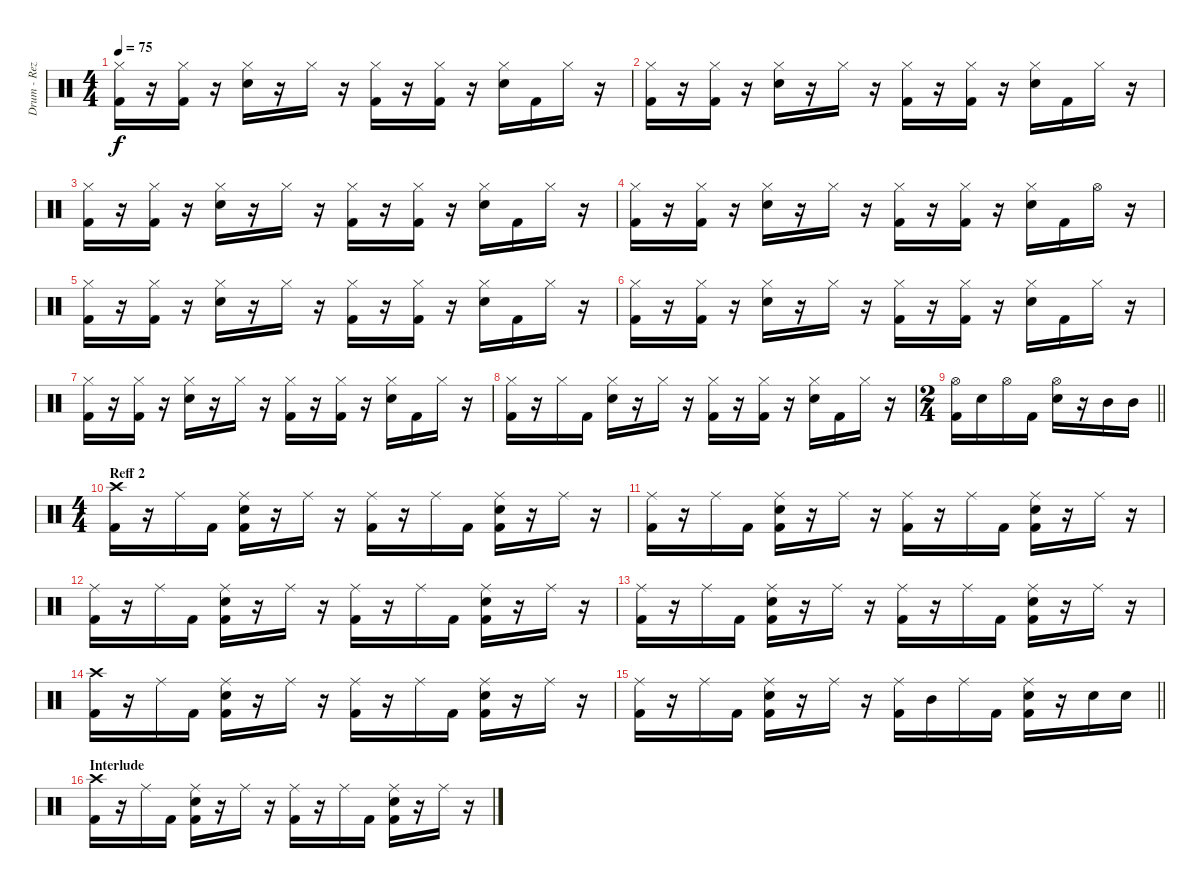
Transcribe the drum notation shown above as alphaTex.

\track ("Drum - Reza" "Drum - Rez") {instrument percussion}
\staff {score}
\articulation defaults
\ts (4 4)
\tempo 75
\clef neutral
\ks c
("Hi-Hat (closed)" "Kick (hit) 2").16{dy f} r.16 ("Hi-Hat (closed)" "Kick (hit) 2").16 r.16 ("Hi-Hat (closed)" "Electric Snare (hit)").16 r.16 "Hi-Hat (closed)".16 r.16 ("Hi-Hat (closed)" "Kick (hit) 2").16 r.16 ("Hi-Hat (closed)" "Kick (hit) 2").16 r.16 ("Hi-Hat (closed)" "Electric Snare (hit)").16 "Kick (hit) 2".16 "Hi-Hat (closed)".16 r.16 |
("Hi-Hat (closed)" "Kick (hit) 2").16 r.16 ("Hi-Hat (closed)" "Kick (hit) 2").16 r.16 ("Hi-Hat (closed)" "Electric Snare (hit)").16 r.16 "Hi-Hat (closed)".16 r.16 ("Hi-Hat (closed)" "Kick (hit) 2").16 r.16 ("Hi-Hat (closed)" "Kick (hit) 2").16 r.16 ("Hi-Hat (closed)" "Electric Snare (hit)").16 "Kick (hit) 2".16 "Hi-Hat (closed)".16 r.16 |
("Hi-Hat (closed)" "Kick (hit) 2").16 r.16 ("Hi-Hat (closed)" "Kick (hit) 2").16 r.16 ("Hi-Hat (closed)" "Electric Snare (hit)").16 r.16 "Hi-Hat (closed)".16 r.16 ("Hi-Hat (closed)" "Kick (hit) 2").16 r.16 ("Hi-Hat (closed)" "Kick (hit) 2").16 r.16 ("Hi-Hat (closed)" "Electric Snare (hit)").16 "Kick (hit) 2".16 "Hi-Hat (closed)".16 r.16 |
("Hi-Hat (closed)" "Kick (hit) 2").16 r.16 ("Hi-Hat (closed)" "Kick (hit) 2").16 r.16 ("Hi-Hat (closed)" "Electric Snare (hit)").16 r.16 "Hi-Hat (closed)".16 r.16 ("Hi-Hat (closed)" "Kick (hit) 2").16 r.16 ("Hi-Hat (closed)" "Kick (hit) 2").16 r.16 ("Hi-Hat (closed)" "Electric Snare (hit)").16 "Kick (hit) 2".16 "Hi-Hat (open)".16 r.16 |
("Hi-Hat (closed)" "Kick (hit) 2").16 r.16 ("Hi-Hat (closed)" "Kick (hit) 2").16 r.16 ("Hi-Hat (closed)" "Electric Snare (hit)").16 r.16 "Hi-Hat (closed)".16 r.16 ("Hi-Hat (closed)" "Kick (hit) 2").16 r.16 ("Hi-Hat (closed)" "Kick (hit) 2").16 r.16 ("Hi-Hat (closed)" "Electric Snare (hit)").16 "Kick (hit) 2".16 "Hi-Hat (closed)".16 r.16 |
("Hi-Hat (closed)" "Kick (hit) 2").16 r.16 ("Hi-Hat (closed)" "Kick (hit) 2").16 r.16 ("Hi-Hat (closed)" "Electric Snare (hit)").16 r.16 "Hi-Hat (closed)".16 r.16 ("Hi-Hat (closed)" "Kick (hit) 2").16 r.16 ("Hi-Hat (closed)" "Kick (hit) 2").16 r.16 ("Hi-Hat (closed)" "Electric Snare (hit)").16 "Kick (hit) 2".16 "Hi-Hat (closed)".16 r.16 |
("Hi-Hat (closed)" "Kick (hit) 2").16 r.16 ("Hi-Hat (closed)" "Kick (hit) 2").16 r.16 ("Hi-Hat (closed)" "Electric Snare (hit)").16 r.16 "Hi-Hat (closed)".16 r.16 ("Hi-Hat (closed)" "Kick (hit) 2").16 r.16 ("Hi-Hat (closed)" "Kick (hit) 2").16 r.16 ("Hi-Hat (closed)" "Electric Snare (hit)").16 "Kick (hit) 2".16 "Hi-Hat (closed)".16 r.16 |
("Hi-Hat (closed)" "Kick (hit) 2").16 r.16 "Hi-Hat (closed)".16 "Kick (hit) 2".16 ("Hi-Hat (closed)" "Electric Snare (hit)").16 r.16 "Hi-Hat (closed)".16 r.16 ("Hi-Hat (closed)" "Kick (hit) 2").16 r.16 ("Hi-Hat (closed)" "Kick (hit) 2").16 r.16 ("Hi-Hat (closed)" "Electric Snare (hit)").16 "Kick (hit) 2".16 "Hi-Hat (closed)".16 r.16 |
\ts (2 4)
\barLineRight lightlight
("Hi-Hat (open)" "Kick (hit) 2").16 "Electric Snare (hit)".16 "Hi-Hat (open)".16 "Kick (hit) 2".16 ("Hi-Hat (open)" "Electric Snare (hit)").16 r.16 "Mid Tom (hit)".16 "Mid Tom (hit)".16 |
\ts (4 4)
\section ("" "Reff 2")
("Crash high (hit)" "Kick (hit) 2").16 r.16 "Ride (middle)".16 "Kick (hit) 2".16 ("Ride (middle)" "Electric Snare (hit)" "Kick (hit) 2").16 r.16 "Ride (middle)".16 r.16 ("Ride (middle)" "Kick (hit) 2").16 r.16 "Ride (middle)".16 "Kick (hit) 2".16 ("Ride (middle)" "Electric Snare (hit)" "Kick (hit) 2").16 r.16 "Ride (middle)".16 r.16 |
("Ride (middle)" "Kick (hit) 2").16 r.16 "Ride (middle)".16 "Kick (hit) 2".16 ("Ride (middle)" "Electric Snare (hit)" "Kick (hit) 2").16 r.16 "Ride (middle)".16 r.16 ("Ride (middle)" "Kick (hit) 2").16 r.16 "Ride (middle)".16 "Kick (hit) 2".16 ("Ride (middle)" "Electric Snare (hit)" "Kick (hit) 2").16 r.16 "Ride (middle)".16 r.16 |
("Ride (middle)" "Kick (hit) 2").16 r.16 "Ride (middle)".16 "Kick (hit) 2".16 ("Ride (middle)" "Electric Snare (hit)" "Kick (hit) 2").16 r.16 "Ride (middle)".16 r.16 ("Ride (middle)" "Kick (hit) 2").16 r.16 "Ride (middle)".16 "Kick (hit) 2".16 ("Ride (middle)" "Electric Snare (hit)" "Kick (hit) 2").16 r.16 "Ride (middle)".16 r.16 |
("Ride (middle)" "Kick (hit) 2").16 r.16 "Ride (middle)".16 "Kick (hit) 2".16 ("Ride (middle)" "Electric Snare (hit)" "Kick (hit) 2").16 r.16 "Ride (middle)".16 r.16 ("Ride (middle)" "Kick (hit) 2").16 r.16 "Ride (middle)".16 "Kick (hit) 2".16 ("Ride (middle)" "Electric Snare (hit)" "Kick (hit) 2").16 r.16 "Ride (middle)".16 r.16 |
("Crash high (hit)" "Kick (hit) 2").16 r.16 "Ride (middle)".16 "Kick (hit) 2".16 ("Ride (middle)" "Electric Snare (hit)" "Kick (hit) 2").16 r.16 "Ride (middle)".16 r.16 ("Ride (middle)" "Kick (hit) 2").16 r.16 "Ride (middle)".16 "Kick (hit) 2".16 ("Ride (middle)" "Electric Snare (hit)" "Kick (hit) 2").16 r.16 "Ride (middle)".16 r.16 |
\barLineRight lightlight
("Ride (middle)" "Kick (hit) 2").16 r.16 "Ride (middle)".16 "Kick (hit) 2".16 ("Ride (middle)" "Electric Snare (hit)" "Kick (hit) 2").16 r.16 "Ride (middle)".16 r.16 ("Ride (middle)" "Kick (hit) 2").16 "Mid Tom (hit)".16 "Ride (middle)".16 "Kick (hit) 2".16 ("Ride (middle)" "Electric Snare (hit)" "Kick (hit) 2").16 r.16 "Electric Snare (hit)".16 "Electric Snare (hit)".16 |
\section ("" "Interlude")
("Crash high (hit)" "Kick (hit) 2").16 r.16 "Ride (middle)".16 "Kick (hit) 2".16 ("Ride (middle)" "Electric Snare (hit)" "Kick (hit) 2").16 r.16 "Ride (middle)".16 r.16 ("Ride (middle)" "Kick (hit) 2").16 r.16 "Ride (middle)".16 "Kick (hit) 2".16 ("Ride (middle)" "Electric Snare (hit)" "Kick (hit) 2").16 r.16 "Ride (middle)".16 r.16
